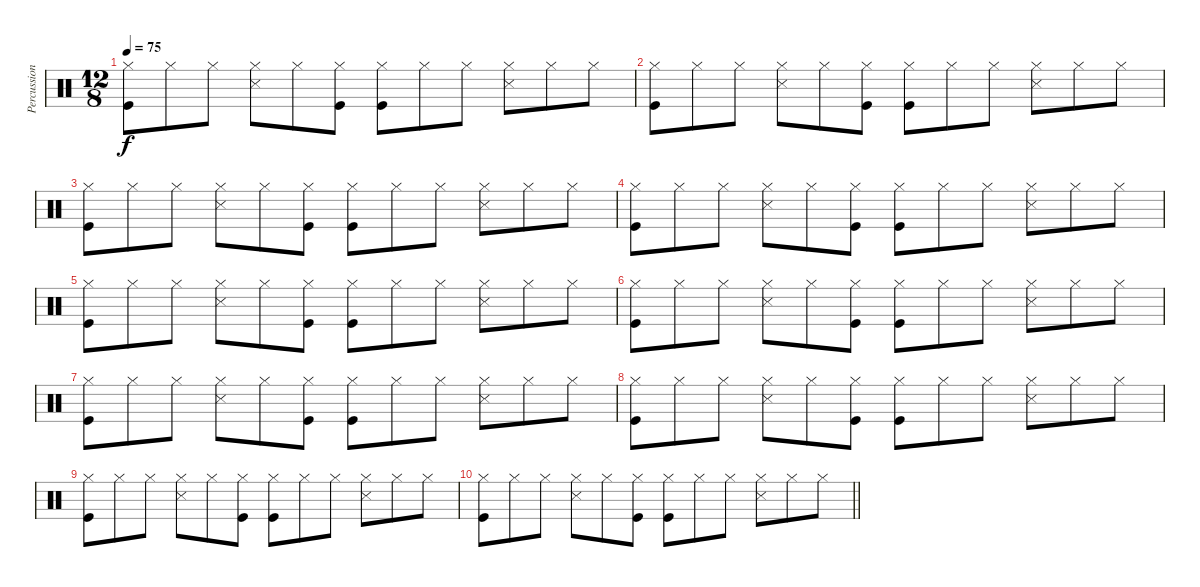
\track ("Percussion" "Percussion") {instrument percussion}
\staff {score}
\articulation defaults
\ts (12 8)
\tempo 75
\clef neutral
\ks c
("Hi-Hat (closed)" "Kick (hit)").8{dy f} "Hi-Hat (closed)".8 "Hi-Hat (closed)".8 ("Hi-Hat (closed)" "Snare (side stick) 3").8 "Hi-Hat (closed)".8 ("Hi-Hat (closed)" "Kick (hit)").8 ("Hi-Hat (closed)" "Kick (hit)").8 "Hi-Hat (closed)".8 "Hi-Hat (closed)".8 ("Hi-Hat (closed)" "Snare (side stick) 3").8 "Hi-Hat (closed)".8 "Hi-Hat (closed)".8 |
("Hi-Hat (closed)" "Kick (hit)").8 "Hi-Hat (closed)".8 "Hi-Hat (closed)".8 ("Hi-Hat (closed)" "Snare (side stick) 3").8 "Hi-Hat (closed)".8 ("Hi-Hat (closed)" "Kick (hit)").8 ("Hi-Hat (closed)" "Kick (hit)").8 "Hi-Hat (closed)".8 "Hi-Hat (closed)".8 ("Hi-Hat (closed)" "Snare (side stick) 3").8 "Hi-Hat (closed)".8 "Hi-Hat (closed)".8 |
("Hi-Hat (closed)" "Kick (hit)").8 "Hi-Hat (closed)".8 "Hi-Hat (closed)".8 ("Hi-Hat (closed)" "Snare (side stick) 3").8 "Hi-Hat (closed)".8 ("Hi-Hat (closed)" "Kick (hit)").8 ("Hi-Hat (closed)" "Kick (hit)").8 "Hi-Hat (closed)".8 "Hi-Hat (closed)".8 ("Hi-Hat (closed)" "Snare (side stick) 3").8 "Hi-Hat (closed)".8 "Hi-Hat (closed)".8 |
("Hi-Hat (closed)" "Kick (hit)").8 "Hi-Hat (closed)".8 "Hi-Hat (closed)".8 ("Hi-Hat (closed)" "Snare (side stick) 3").8 "Hi-Hat (closed)".8 ("Hi-Hat (closed)" "Kick (hit)").8 ("Hi-Hat (closed)" "Kick (hit)").8 "Hi-Hat (closed)".8 "Hi-Hat (closed)".8 ("Hi-Hat (closed)" "Snare (side stick) 3").8 "Hi-Hat (closed)".8 "Hi-Hat (closed)".8 |
("Hi-Hat (closed)" "Kick (hit)").8 "Hi-Hat (closed)".8 "Hi-Hat (closed)".8 ("Hi-Hat (closed)" "Snare (side stick) 3").8 "Hi-Hat (closed)".8 ("Hi-Hat (closed)" "Kick (hit)").8 ("Hi-Hat (closed)" "Kick (hit)").8 "Hi-Hat (closed)".8 "Hi-Hat (closed)".8 ("Hi-Hat (closed)" "Snare (side stick) 3").8 "Hi-Hat (closed)".8 "Hi-Hat (closed)".8 |
("Hi-Hat (closed)" "Kick (hit)").8 "Hi-Hat (closed)".8 "Hi-Hat (closed)".8 ("Hi-Hat (closed)" "Snare (side stick) 3").8 "Hi-Hat (closed)".8 ("Hi-Hat (closed)" "Kick (hit)").8 ("Hi-Hat (closed)" "Kick (hit)").8 "Hi-Hat (closed)".8 "Hi-Hat (closed)".8 ("Hi-Hat (closed)" "Snare (side stick) 3").8 "Hi-Hat (closed)".8 "Hi-Hat (closed)".8 |
("Hi-Hat (closed)" "Kick (hit)").8 "Hi-Hat (closed)".8 "Hi-Hat (closed)".8 ("Hi-Hat (closed)" "Snare (side stick) 3").8 "Hi-Hat (closed)".8 ("Hi-Hat (closed)" "Kick (hit)").8 ("Hi-Hat (closed)" "Kick (hit)").8 "Hi-Hat (closed)".8 "Hi-Hat (closed)".8 ("Hi-Hat (closed)" "Snare (side stick) 3").8 "Hi-Hat (closed)".8 "Hi-Hat (closed)".8 |
("Hi-Hat (closed)" "Kick (hit)").8 "Hi-Hat (closed)".8 "Hi-Hat (closed)".8 ("Hi-Hat (closed)" "Snare (side stick) 3").8 "Hi-Hat (closed)".8 ("Hi-Hat (closed)" "Kick (hit)").8 ("Hi-Hat (closed)" "Kick (hit)").8 "Hi-Hat (closed)".8 "Hi-Hat (closed)".8 ("Hi-Hat (closed)" "Snare (side stick) 3").8 "Hi-Hat (closed)".8 "Hi-Hat (closed)".8 |
("Hi-Hat (closed)" "Kick (hit)").8 "Hi-Hat (closed)".8 "Hi-Hat (closed)".8 ("Hi-Hat (closed)" "Snare (side stick) 3").8 "Hi-Hat (closed)".8 ("Hi-Hat (closed)" "Kick (hit)").8 ("Hi-Hat (closed)" "Kick (hit)").8 "Hi-Hat (closed)".8 "Hi-Hat (closed)".8 ("Hi-Hat (closed)" "Snare (side stick) 3").8 "Hi-Hat (closed)".8 "Hi-Hat (closed)".8 |
\barLineRight lightlight
("Hi-Hat (closed)" "Kick (hit)").8 "Hi-Hat (closed)".8 "Hi-Hat (closed)".8 ("Hi-Hat (closed)" "Snare (side stick) 3").8 "Hi-Hat (closed)".8 ("Hi-Hat (closed)" "Kick (hit)").8 ("Hi-Hat (closed)" "Kick (hit)").8 "Hi-Hat (closed)".8 "Hi-Hat (closed)".8 ("Hi-Hat (closed)" "Snare (side stick) 3").8 "Hi-Hat (closed)".8 "Hi-Hat (closed)".8
